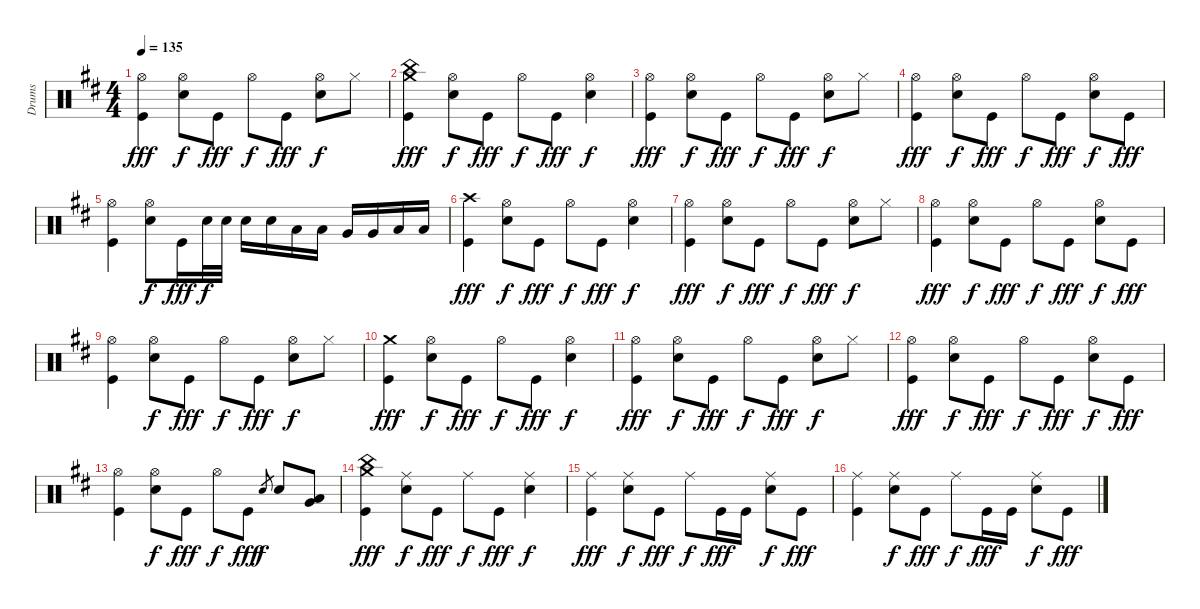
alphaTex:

\track ("Drums" "Drums") {instrument percussion}
\staff {score}
\articulation defaults
\ts (4 4)
\tempo 135
\clef neutral
\ks d
("Hi-Hat (open)" "Kick (hit)").4{dy fff} ("Hi-Hat (open)" "Snare (hit) 2").8{dy f} "Kick (hit)".8{dy fff} "Hi-Hat (open)".8{dy f} "Kick (hit)".8{dy fff} ("Hi-Hat (open)" "Snare (hit) 2").8{dy f} "Hi-Hat (closed)".8 |
("China (hit)" "Crash medium (hit)" "Kick (hit)").4{dy fff} ("Hi-Hat (open)" "Snare (hit) 2").8{dy f} "Kick (hit)".8{dy fff} "Hi-Hat (open)".8{dy f} "Kick (hit)".8{dy fff} ("Hi-Hat (open)" "Snare (hit) 2").4{dy f} |
("Hi-Hat (open)" "Kick (hit)").4{dy fff} ("Hi-Hat (open)" "Snare (hit) 2").8{dy f} "Kick (hit)".8{dy fff} "Hi-Hat (open)".8{dy f} "Kick (hit)".8{dy fff} ("Hi-Hat (open)" "Snare (hit) 2").8{dy f} "Hi-Hat (closed)".8 |
("Hi-Hat (open)" "Kick (hit)").4{dy fff} ("Hi-Hat (open)" "Snare (hit) 2").8{dy f} "Kick (hit)".8{dy fff} "Hi-Hat (open)".8{dy f} "Kick (hit)".8{dy fff} ("Hi-Hat (open)" "Snare (hit) 2").8{dy f} "Kick (hit)".8{dy fff} |
("Hi-Hat (open)" "Kick (hit)").4 ("Hi-Hat (open)" "Snare (hit) 2").8{dy f} "Kick (hit)".16{dy fff} "Snare (hit) 2".32{dy f} "Snare (hit) 2".32 "Snare (hit) 2".16 "Snare (hit) 2".16 "Low Tom (hit)".16 "Low Tom (hit)".16 "Very Low Tom (hit)".16 "Very Low Tom (hit)".16 "Low Floor Tom (hit)".16 "Low Floor Tom (hit)".16 |
("Crash high (hit)" "Kick (hit)").4{dy fff} ("Hi-Hat (open)" "Snare (hit) 2").8{dy f} "Kick (hit)".8{dy fff} "Hi-Hat (open)".8{dy f} "Kick (hit)".8{dy fff} ("Hi-Hat (open)" "Snare (hit) 2").4{dy f} |
("Hi-Hat (open)" "Kick (hit)").4{dy fff} ("Hi-Hat (open)" "Snare (hit) 2").8{dy f} "Kick (hit)".8{dy fff} "Hi-Hat (open)".8{dy f} "Kick (hit)".8{dy fff} ("Hi-Hat (open)" "Snare (hit) 2").8{dy f} "Hi-Hat (closed)".8 |
("Hi-Hat (open)" "Kick (hit)").4{dy fff} ("Hi-Hat (open)" "Snare (hit) 2").8{dy f} "Kick (hit)".8{dy fff} "Hi-Hat (open)".8{dy f} "Kick (hit)".8{dy fff} ("Hi-Hat (open)" "Snare (hit) 2").8{dy f} "Kick (hit)".8{dy fff} |
("Hi-Hat (open)" "Kick (hit)").4 ("Hi-Hat (open)" "Snare (hit) 2").8{dy f} "Kick (hit)".8{dy fff} "Hi-Hat (open)".8{dy f} "Kick (hit)".8{dy fff} ("Hi-Hat (open)" "Snare (hit) 2").8{dy f} "Hi-Hat (closed)".8 |
("Crash medium (hit)" "Kick (hit)").4{dy fff} ("Hi-Hat (open)" "Snare (hit) 2").8{dy f} "Kick (hit)".8{dy fff} "Hi-Hat (open)".8{dy f} "Kick (hit)".8{dy fff} ("Hi-Hat (open)" "Snare (hit) 2").4{dy f} |
("Hi-Hat (open)" "Kick (hit)").4{dy fff} ("Hi-Hat (open)" "Snare (hit) 2").8{dy f} "Kick (hit)".8{dy fff} "Hi-Hat (open)".8{dy f} "Kick (hit)".8{dy fff} ("Hi-Hat (open)" "Snare (hit) 2").8{dy f} "Hi-Hat (closed)".8 |
("Hi-Hat (open)" "Kick (hit)").4{dy fff} ("Hi-Hat (open)" "Snare (hit) 2").8{dy f} "Kick (hit)".8{dy fff} "Hi-Hat (open)".8{dy f} "Kick (hit)".8{dy fff} ("Hi-Hat (open)" "Snare (hit) 2").8{dy f} "Kick (hit)".8{dy fff} |
("Hi-Hat (open)" "Kick (hit)").4 ("Hi-Hat (open)" "Snare (hit) 2").8{dy f} "Kick (hit)".8{dy fff} "Hi-Hat (open)".8{dy f} "Kick (hit)".8{dy fff} "Snare (hit) 2".8{gr dy f} "Snare (hit) 2".8 ("Low Tom (hit)" "Very Low Tom (hit)").8 |
("Crash medium (hit)" "China (hit)" "Kick (hit)").4{dy fff} ("Ride (middle)" "Snare (hit) 2").8{dy f} "Kick (hit)".8{dy fff} "Ride (middle)".8{dy f} "Kick (hit)".8{dy fff} ("Ride (middle)" "Snare (hit) 2").4{dy f} |
("Ride (middle)" "Kick (hit)").4{dy fff} ("Ride (middle)" "Snare (hit) 2").8{dy f} "Kick (hit)".8{dy fff} "Ride (middle)".8{dy f} "Kick (hit)".16{dy fff} "Kick (hit)".16 ("Ride (middle)" "Snare (hit) 2").8{dy f} "Kick (hit)".8{dy fff} |
("Ride (middle)" "Kick (hit)").4 ("Ride (middle)" "Snare (hit) 2").8{dy f} "Kick (hit)".8{dy fff} "Ride (middle)".8{dy f} "Kick (hit)".16{dy fff} "Kick (hit)".16 ("Ride (middle)" "Snare (hit) 2").8{dy f} "Kick (hit)".8{dy fff}
